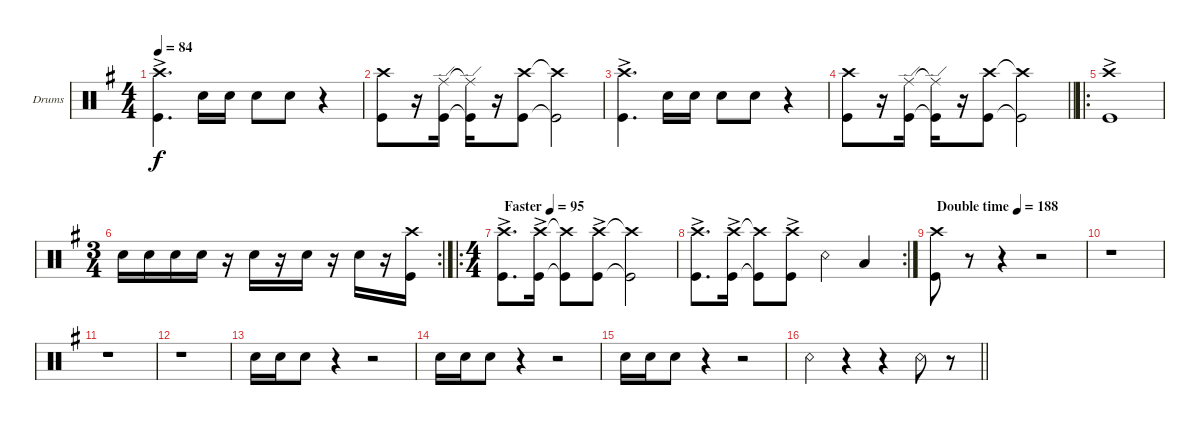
\defaultSystemsLayout 4
\bracketExtendMode groupsimilarinstruments
\firstSystemTrackNameOrientation horizontal
\otherSystemsTrackNameOrientation horizontal
\track ("Drums" "Drums") {instrument percussion}
\staff {score}
\articulation defaults
\ts (4 4)
\tempo 84
\clef neutral
\scale
0.333333
\ks g
("Kick (hit)"{ac} "Crash high (hit)"{ac}).4{d dy f} "Snare (hit) 2".16 "Snare (hit) 2".16 "Snare (hit) 2".8 "Snare (hit) 2".8 r.4 |
\scale
0.333333 ("Kick (hit)" "Crash high (hit)").8 r.16 ("Kick (hit)" "Ride (edge)").16 ("Kick (hit)"{t} "Ride (edge)"{t}).16 r.16 ("Kick (hit)" "Crash high (hit)").8 ("Kick (hit)"{t} "Crash high (hit)"{t}).2 |
\scale
0.311475 ("Kick (hit)"{ac} "Crash high (hit)"{ac}).4{d} "Snare (hit) 2".16 "Snare (hit) 2".16 "Snare (hit) 2".8 "Snare (hit) 2".8 r.4 |
\scale
0.311475
\barLineRight lightlight
("Kick (hit)" "Crash high (hit)").8 r.16 ("Kick (hit)" "Ride (edge)").16 ("Kick (hit)"{t} "Ride (edge)"{t}).16 r.16 ("Kick (hit)" "Crash high (hit)").8 ("Kick (hit)"{t} "Crash high (hit)"{t}).2 |
\ro
\scale
0.377049 ("Kick (hit)"{ac} "Crash high (hit)"{ac}).1 |
\rc 2
\ts (3 4)
\scale
0.389068 "Snare (hit) 2".16 "Snare (hit) 2".16 "Snare (hit) 2".16 "Snare (hit) 2".16 r.16 "Snare (hit) 2".16 r.16 "Snare (hit) 2".16 r.16 "Snare (hit) 2".16 r.16 ("Kick (hit)" "Crash high (hit)").16 |
\ro
\ts (4 4)
\tempo (95 "Faster")
\scale
0.40836 ("Kick (hit)"{ac} "Crash high (hit)"{ac}).8{d} ("Kick (hit)"{ac} "Crash high (hit)"{ac}).16 ("Kick (hit)"{t} "Crash high (hit)"{t}).8 ("Kick (hit)"{ac} "Crash high (hit)"{ac}).8 ("Kick (hit)"{t} "Crash high (hit)"{t}).2 |
\rc 2
\scale
0.202572 ("Kick (hit)"{ac} "Crash high (hit)"{ac}).8{d} ("Kick (hit)"{ac} "Crash high (hit)"{ac}).16 ("Kick (hit)"{t} "Crash high (hit)"{t}).8 ("Kick (hit)"{ac} "Crash high (hit)"{ac}).8 "Snare (rim shot)".4 "Low Tom (hit)".4 |
\tempo (188 "Double time")
\scale
0.333333 ("Crash high (hit)" "Kick (hit)").8 r.8 r.4 r.2 |
\scale
0.333333 r.1 |
\scale
0.333333 r.1 |
\scale
0.333333 r.1 |
\scale
0.333333 "Snare (hit) 2".16 "Snare (hit) 2".16 "Snare (hit) 2".8 r.4 r.2 |
\scale
0.333333 "Snare (hit) 2".16 "Snare (hit) 2".16 "Snare (hit) 2".8 r.4 r.2 |
\scale
0.311475 "Snare (hit) 2".16 "Snare (hit) 2".16 "Snare (hit) 2".8 r.4 r.2 |
\scale
0.311475
\barLineRight lightlight "Snare (rim shot)".4
r.4 r.4 "Snare (rim shot)".8 r.8
